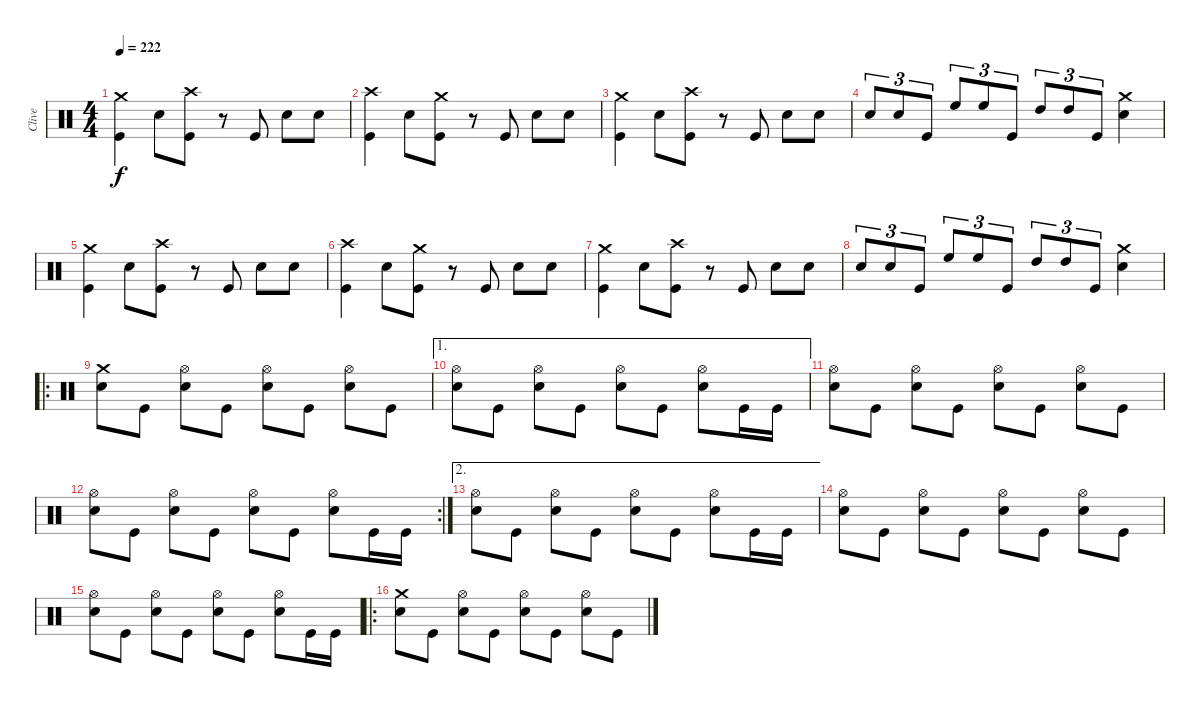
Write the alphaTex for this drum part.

\track ("Clive" "Clive") {instrument percussion}
\staff {score}
\articulation defaults
\ts (4 4)
\tempo 222
\clef neutral
\ks c
("Crash medium (hit)" "Kick (hit)").4{dy f} "Snare (hit) 2".8 ("Crash high (hit)" "Kick (hit)").8 r.8 "Kick (hit)".8 "Snare (hit) 2".8 "Snare (hit) 2".8 |
("Crash high (hit)" "Kick (hit)").4 "Snare (hit) 2".8 ("Crash medium (hit)" "Kick (hit)").8 r.8 "Kick (hit)".8 "Snare (hit) 2".8 "Snare (hit) 2".8 |
("Crash medium (hit)" "Kick (hit)").4 "Snare (hit) 2".8 ("Crash high (hit)" "Kick (hit)").8 r.8 "Kick (hit)".8 "Snare (hit) 2".8 "Snare (hit) 2".8 |
"Snare (hit) 2".8{tu (3 2)} "Snare (hit) 2".8{tu (3 2)} "Kick (hit)".8{tu (3 2)} "High Floor Tom (hit)".8{tu (3 2)} "High Floor Tom (hit)".8{tu (3 2)} "Kick (hit)".8{tu (3 2)} "High Tom (hit)".8{tu (3 2)} "High Tom (hit)".8{tu (3 2)} "Kick (hit)".8{tu (3 2)} ("Crash medium (hit)" "Snare (hit) 2").4 |
("Crash medium (hit)" "Kick (hit)").4 "Snare (hit) 2".8 ("Crash high (hit)" "Kick (hit)").8 r.8 "Kick (hit)".8 "Snare (hit) 2".8 "Snare (hit) 2".8 |
("Crash high (hit)" "Kick (hit)").4 "Snare (hit) 2".8 ("Crash medium (hit)" "Kick (hit)").8 r.8 "Kick (hit)".8 "Snare (hit) 2".8 "Snare (hit) 2".8 |
("Crash medium (hit)" "Kick (hit)").4 "Snare (hit) 2".8 ("Crash high (hit)" "Kick (hit)").8 r.8 "Kick (hit)".8 "Snare (hit) 2".8 "Snare (hit) 2".8 |
"Snare (hit) 2".8{tu (3 2)} "Snare (hit) 2".8{tu (3 2)} "Kick (hit)".8{tu (3 2)} "High Floor Tom (hit)".8{tu (3 2)} "High Floor Tom (hit)".8{tu (3 2)} "Kick (hit)".8{tu (3 2)} "High Tom (hit)".8{tu (3 2)} "High Tom (hit)".8{tu (3 2)} "Kick (hit)".8{tu (3 2)} ("Crash medium (hit)" "Snare (hit) 2").4 |
\ro
("Crash medium (hit)" "Snare (hit) 2").8 "Kick (hit)".8 ("Hi-Hat (open)" "Snare (hit) 2").8 "Kick (hit)".8 ("Hi-Hat (open)" "Snare (hit) 2").8 "Kick (hit)".8 ("Hi-Hat (open)" "Snare (hit) 2").8 "Kick (hit)".8 |
\ae 1
("Hi-Hat (open)" "Snare (hit) 2").8 "Kick (hit)".8 ("Hi-Hat (open)" "Snare (hit) 2").8 "Kick (hit)".8 ("Hi-Hat (open)" "Snare (hit) 2").8 "Kick (hit)".8 ("Hi-Hat (open)" "Snare (hit) 2").8 "Kick (hit)".16 "Kick (hit)".16 |
("Hi-Hat (open)" "Snare (hit) 2").8 "Kick (hit)".8 ("Hi-Hat (open)" "Snare (hit) 2").8 "Kick (hit)".8 ("Hi-Hat (open)" "Snare (hit) 2").8 "Kick (hit)".8 ("Hi-Hat (open)" "Snare (hit) 2").8 "Kick (hit)".8 |
\rc 2
("Hi-Hat (open)" "Snare (hit) 2").8 "Kick (hit)".8 ("Hi-Hat (open)" "Snare (hit) 2").8 "Kick (hit)".8 ("Hi-Hat (open)" "Snare (hit) 2").8 "Kick (hit)".8 ("Hi-Hat (open)" "Snare (hit) 2").8 "Kick (hit)".16 "Kick (hit)".16 |
\ae 2
("Hi-Hat (open)" "Snare (hit) 2").8 "Kick (hit)".8 ("Hi-Hat (open)" "Snare (hit) 2").8 "Kick (hit)".8 ("Hi-Hat (open)" "Snare (hit) 2").8 "Kick (hit)".8 ("Hi-Hat (open)" "Snare (hit) 2").8 "Kick (hit)".16 "Kick (hit)".16 |
("Hi-Hat (open)" "Snare (hit) 2").8 "Kick (hit)".8 ("Hi-Hat (open)" "Snare (hit) 2").8 "Kick (hit)".8 ("Hi-Hat (open)" "Snare (hit) 2").8 "Kick (hit)".8 ("Hi-Hat (open)" "Snare (hit) 2").8 "Kick (hit)".8 |
("Hi-Hat (open)" "Snare (hit) 2").8 "Kick (hit)".8 ("Hi-Hat (open)" "Snare (hit) 2").8 "Kick (hit)".8 ("Hi-Hat (open)" "Snare (hit) 2").8 "Kick (hit)".8 ("Hi-Hat (open)" "Snare (hit) 2").8 "Kick (hit)".16 "Kick (hit)".16 |
\ro
("Crash medium (hit)" "Snare (hit) 2").8 "Kick (hit)".8 ("Hi-Hat (open)" "Snare (hit) 2").8 "Kick (hit)".8 ("Hi-Hat (open)" "Snare (hit) 2").8 "Kick (hit)".8 ("Hi-Hat (open)" "Snare (hit) 2").8 "Kick (hit)".8
